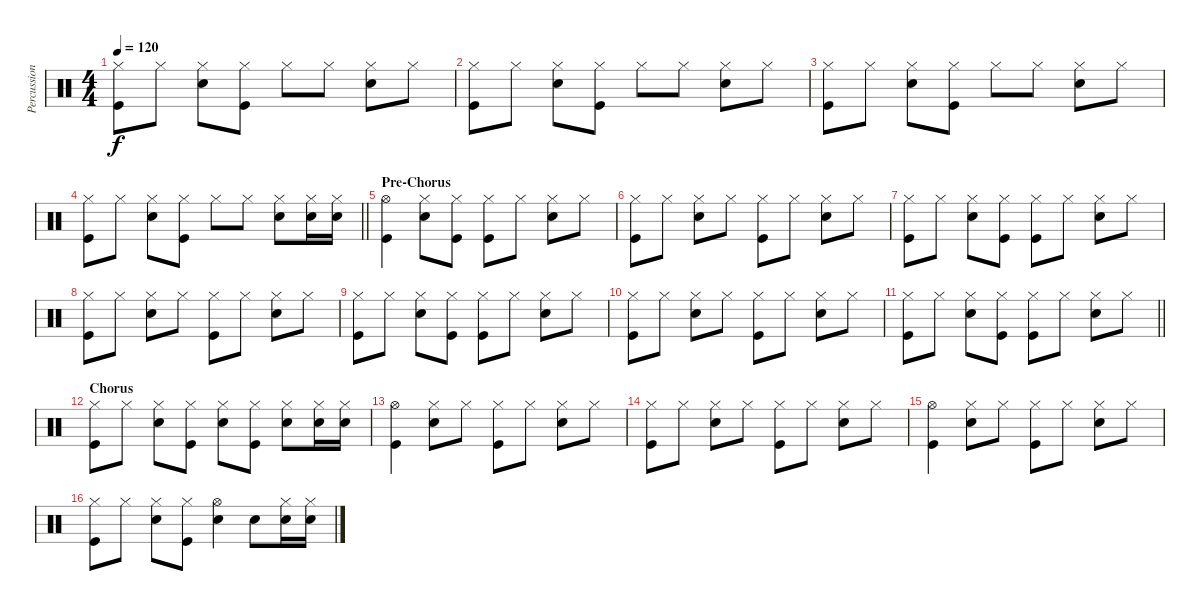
\track ("Percussion" "Percussion") {instrument percussion}
\staff {score}
\articulation defaults
\ts (4 4)
\tempo 120
\clef neutral
\ks c
("Hi-Hat (closed)" "Kick (hit)").8{dy f} "Hi-Hat (closed)".8 ("Hi-Hat (closed)" "Snare (hit) 2").8 ("Hi-Hat (closed)" "Kick (hit)").8 "Hi-Hat (closed)".8 "Hi-Hat (closed)".8 ("Hi-Hat (closed)" "Snare (hit) 2").8 "Hi-Hat (closed)".8 |
("Hi-Hat (closed)" "Kick (hit)").8 "Hi-Hat (closed)".8 ("Hi-Hat (closed)" "Snare (hit) 2").8 ("Hi-Hat (closed)" "Kick (hit)").8 "Hi-Hat (closed)".8 "Hi-Hat (closed)".8 ("Hi-Hat (closed)" "Snare (hit) 2").8 "Hi-Hat (closed)".8 |
("Hi-Hat (closed)" "Kick (hit)").8 "Hi-Hat (closed)".8 ("Hi-Hat (closed)" "Snare (hit) 2").8 ("Hi-Hat (closed)" "Kick (hit)").8 "Hi-Hat (closed)".8 "Hi-Hat (closed)".8 ("Hi-Hat (closed)" "Snare (hit) 2").8 "Hi-Hat (closed)".8 |
\barLineRight lightlight
("Hi-Hat (closed)" "Kick (hit)").8 "Hi-Hat (closed)".8 ("Hi-Hat (closed)" "Snare (hit) 2").8 ("Hi-Hat (closed)" "Kick (hit)").8 "Hi-Hat (closed)".8 "Hi-Hat (closed)".8 ("Hi-Hat (closed)" "Snare (hit) 2").8 ("Hi-Hat (closed)" "Snare (hit) 2").16 ("Hi-Hat (closed)" "Snare (hit) 2").16 |
\section ("" "Pre-Chorus")
("Hi-Hat (open)" "Kick (hit)").4 ("Hi-Hat (closed)" "Snare (hit) 2").8 ("Hi-Hat (closed)" "Kick (hit)").8 ("Hi-Hat (closed)" "Kick (hit)").8 "Hi-Hat (closed)".8 ("Hi-Hat (closed)" "Snare (hit) 2").8 "Hi-Hat (closed)".8 |
("Hi-Hat (closed)" "Kick (hit)").8 "Hi-Hat (closed)".8 ("Hi-Hat (closed)" "Snare (hit) 2").8 "Hi-Hat (closed)".8 ("Hi-Hat (closed)" "Kick (hit)").8 "Hi-Hat (closed)".8 ("Hi-Hat (closed)" "Snare (hit) 2").8 "Hi-Hat (closed)".8 |
("Hi-Hat (closed)" "Kick (hit)").8 "Hi-Hat (closed)".8 ("Hi-Hat (closed)" "Snare (hit) 2").8 ("Hi-Hat (closed)" "Kick (hit)").8 ("Hi-Hat (closed)" "Kick (hit)").8 "Hi-Hat (closed)".8 ("Hi-Hat (closed)" "Snare (hit) 2").8 "Hi-Hat (closed)".8 |
("Hi-Hat (closed)" "Kick (hit)").8 "Hi-Hat (closed)".8 ("Hi-Hat (closed)" "Snare (hit) 2").8 "Hi-Hat (closed)".8 ("Hi-Hat (closed)" "Kick (hit)").8 "Hi-Hat (closed)".8 ("Hi-Hat (closed)" "Snare (hit) 2").8 "Hi-Hat (closed)".8 |
("Hi-Hat (closed)" "Kick (hit)").8 "Hi-Hat (closed)".8 ("Hi-Hat (closed)" "Snare (hit) 2").8 ("Hi-Hat (closed)" "Kick (hit)").8 ("Hi-Hat (closed)" "Kick (hit)").8 "Hi-Hat (closed)".8 ("Hi-Hat (closed)" "Snare (hit) 2").8 "Hi-Hat (closed)".8 |
("Hi-Hat (closed)" "Kick (hit)").8 "Hi-Hat (closed)".8 ("Hi-Hat (closed)" "Snare (hit) 2").8 "Hi-Hat (closed)".8 ("Hi-Hat (closed)" "Kick (hit)").8 "Hi-Hat (closed)".8 ("Hi-Hat (closed)" "Snare (hit) 2").8 "Hi-Hat (closed)".8 |
\barLineRight lightlight
("Hi-Hat (closed)" "Kick (hit)").8 "Hi-Hat (closed)".8 ("Hi-Hat (closed)" "Snare (hit) 2").8 ("Hi-Hat (closed)" "Kick (hit)").8 ("Hi-Hat (closed)" "Kick (hit)").8 "Hi-Hat (closed)".8 ("Hi-Hat (closed)" "Snare (hit) 2").8 "Hi-Hat (closed)".8 |
\section ("" "Chorus")
("Hi-Hat (closed)" "Kick (hit)").8 "Hi-Hat (closed)".8 ("Hi-Hat (closed)" "Snare (hit) 2").8 ("Hi-Hat (closed)" "Kick (hit)").8 ("Hi-Hat (closed)" "Snare (hit) 2").8 ("Hi-Hat (closed)" "Kick (hit)").8 ("Hi-Hat (closed)" "Snare (hit) 2").8 ("Hi-Hat (closed)" "Snare (hit) 2").16 ("Hi-Hat (closed)" "Snare (hit) 2").16 |
("Hi-Hat (open)" "Kick (hit)").4 ("Hi-Hat (closed)" "Snare (hit) 2").8 "Hi-Hat (closed)".8 ("Hi-Hat (closed)" "Kick (hit)").8 "Hi-Hat (closed)".8 ("Hi-Hat (closed)" "Snare (hit) 2").8 "Hi-Hat (closed)".8 |
("Hi-Hat (closed)" "Kick (hit)").8 "Hi-Hat (closed)".8 ("Hi-Hat (closed)" "Snare (hit) 2").8 "Hi-Hat (closed)".8 ("Hi-Hat (closed)" "Kick (hit)").8 "Hi-Hat (closed)".8 ("Hi-Hat (closed)" "Snare (hit) 2").8 "Hi-Hat (closed)".8 |
("Hi-Hat (open)" "Kick (hit)").4 ("Hi-Hat (closed)" "Snare (hit) 2").8 "Hi-Hat (closed)".8 ("Hi-Hat (closed)" "Kick (hit)").8 "Hi-Hat (closed)".8 ("Hi-Hat (closed)" "Snare (hit) 2").8 "Hi-Hat (closed)".8 |
("Hi-Hat (closed)" "Kick (hit)").8 "Hi-Hat (closed)".8 ("Hi-Hat (closed)" "Snare (hit) 2").8 ("Hi-Hat (closed)" "Kick (hit)").8 ("Hi-Hat (open)" "Snare (hit) 2").4 "Snare (hit) 2".8 ("Hi-Hat (closed)" "Snare (hit) 2").16 ("Hi-Hat (closed)" "Snare (hit) 2").16
